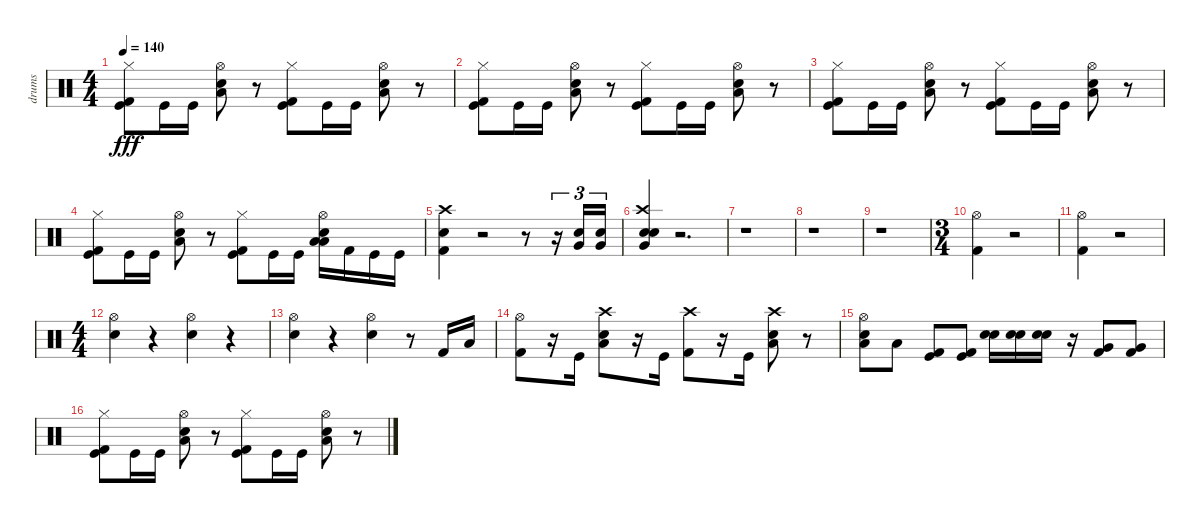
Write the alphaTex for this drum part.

\track ("drums" "drums") {instrument percussion}
\staff {score}
\articulation defaults
\ts (4 4)
\tempo 140
\clef neutral
\ks c
("Hi-Hat (closed)" "Kick (hit)" "Kick (hit) 2").8{dy fff} "Kick (hit)".16 "Kick (hit)".16 ("Hi-Hat (open)" "Low Tom (hit)" "Snare (hit) 2").8 r.8 ("Hi-Hat (closed)" "Kick (hit)" "Kick (hit) 2").8 "Kick (hit)".16 "Kick (hit)".16 ("Hi-Hat (open)" "Low Tom (hit)" "Snare (hit) 2").8 r.8 |
("Hi-Hat (closed)" "Kick (hit)" "Kick (hit) 2").8 "Kick (hit)".16 "Kick (hit)".16 ("Hi-Hat (open)" "Low Tom (hit)" "Snare (hit) 2").8 r.8 ("Hi-Hat (closed)" "Kick (hit)" "Kick (hit) 2").8 "Kick (hit)".16 "Kick (hit)".16 ("Hi-Hat (open)" "Low Tom (hit)" "Snare (hit) 2").8 r.8 |
("Hi-Hat (closed)" "Kick (hit)" "Kick (hit) 2").8 "Kick (hit)".16 "Kick (hit)".16 ("Hi-Hat (open)" "Low Tom (hit)" "Snare (hit) 2").8 r.8 ("Hi-Hat (closed)" "Kick (hit)" "Kick (hit) 2").8 "Kick (hit)".16 "Kick (hit)".16 ("Hi-Hat (open)" "Low Tom (hit)" "Snare (hit) 2").8 r.8 |
("Hi-Hat (closed)" "Kick (hit)" "Kick (hit) 2").8 "Kick (hit)".16 "Kick (hit)".16 ("Hi-Hat (open)" "Low Tom (hit)" "Snare (hit) 2").8 r.8 ("Hi-Hat (closed)" "Kick (hit)" "Kick (hit) 2").8 "Kick (hit)".16 "Kick (hit)".16 ("Low Floor Tom (hit)" "Hi-Hat (open)" "Low Tom (hit)" "Snare (hit) 2").16 "Kick (hit) 2".16 "Kick (hit)".16 "Kick (hit)".16 |
("Crash high (hit)" "Snare (hit) 2" "Kick (hit) 2").4 r.2 r.8 r.16{tu (3 2)} ("Electric Snare (hit)" "Very Low Tom (hit)").16{tu (3 2)} ("Electric Snare (hit)" "Very Low Tom (hit)").16{tu (3 2)} |
("Crash high (hit)" "Very Low Tom (hit)" "Snare (hit) 2" "Electric Snare (hit)").4 r.2{d} |
r.1 |
r.1 |
r.1 |
\ts (3 4)
("Hi-Hat (open)" "Kick (hit) 2").4 r.2 |
("Hi-Hat (open)" "Kick (hit) 2").4 r.2 |
\ts (4 4)
("Hi-Hat (open)" "Snare (hit) 2").4 r.4 ("Hi-Hat (open)" "Snare (hit) 2").4 r.4 |
("Hi-Hat (open)" "Snare (hit) 2").4 r.4 ("Hi-Hat (open)" "Snare (hit) 2").4 r.8 "Kick (hit) 2".16 "Low Floor Tom (hit)".16 |
("Kick (hit) 2" "Hi-Hat (open)").8 r.16 "Kick (hit)".16 ("Low Tom (hit)" "Snare (hit) 2" "Crash high (hit)").8 r.16 "Kick (hit)".16 ("Kick (hit) 2" "Crash high (hit)").8 r.16 "Kick (hit)".16 ("Low Tom (hit)" "Snare (hit) 2" "Crash high (hit)").8 r.8 |
("Hi-Hat (open)" "Snare (hit) 2" "Low Tom (hit)").8 "Low Floor Tom (hit)".8 ("Kick (hit)" "Kick (hit) 2").8 ("Kick (hit)" "Kick (hit) 2").8 ("Electric Snare (hit)" "Snare (hit) 2").16 ("Electric Snare (hit)" "Snare (hit) 2").16 ("Snare (hit) 2" "Electric Snare (hit)").16 r.16 ("Kick (hit) 2" "Very Low Tom (hit)").8 ("Kick (hit) 2" "Very Low Tom (hit)").8 |
("Hi-Hat (closed)" "Kick (hit)" "Kick (hit) 2").8 "Kick (hit)".16 "Kick (hit)".16 ("Hi-Hat (open)" "Low Tom (hit)" "Snare (hit) 2").8 r.8 ("Hi-Hat (closed)" "Kick (hit)" "Kick (hit) 2").8 "Kick (hit)".16 "Kick (hit)".16 ("Hi-Hat (open)" "Low Tom (hit)" "Snare (hit) 2").8 r.8
